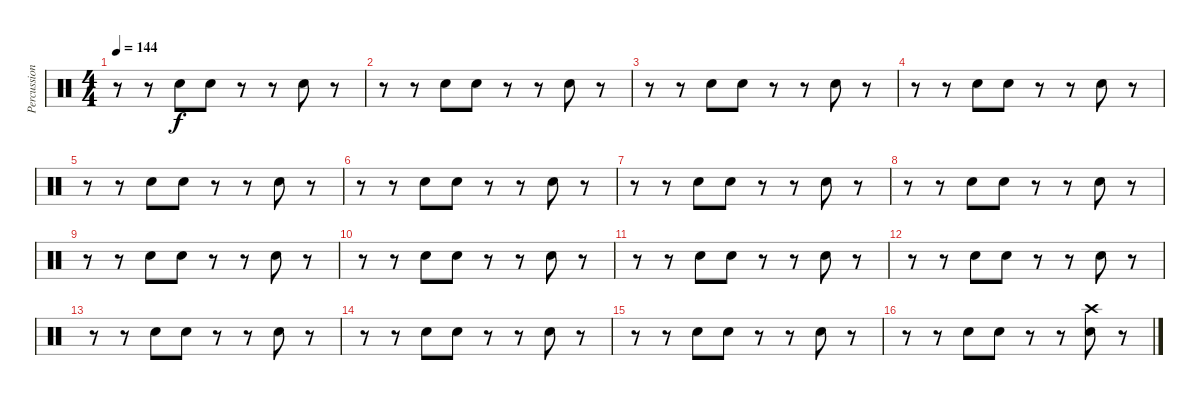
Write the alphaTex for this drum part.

\track ("Percussion" "Percussion") {instrument percussion}
\staff {score}
\articulation defaults
\ts (4 4)
\tempo 144
\clef neutral
\ks c
r.8{dy f} r.8 "Hand Clap (hit)".8 "Hand Clap (hit)".8 r.8 r.8 "Hand Clap (hit)".8 r.8 |
r.8 r.8 "Hand Clap (hit)".8 "Hand Clap (hit)".8 r.8 r.8 "Hand Clap (hit)".8 r.8 |
r.8 r.8 "Hand Clap (hit)".8 "Hand Clap (hit)".8 r.8 r.8 "Hand Clap (hit)".8 r.8 |
r.8 r.8 "Hand Clap (hit)".8 "Hand Clap (hit)".8 r.8 r.8 "Hand Clap (hit)".8 r.8 |
r.8 r.8 "Hand Clap (hit)".8 "Hand Clap (hit)".8 r.8 r.8 "Hand Clap (hit)".8 r.8 |
r.8 r.8 "Hand Clap (hit)".8 "Hand Clap (hit)".8 r.8 r.8 "Hand Clap (hit)".8 r.8 |
r.8 r.8 "Hand Clap (hit)".8 "Hand Clap (hit)".8 r.8 r.8 "Hand Clap (hit)".8 r.8 |
r.8 r.8 "Hand Clap (hit)".8 "Hand Clap (hit)".8 r.8 r.8 "Hand Clap (hit)".8 r.8 |
r.8 r.8 "Hand Clap (hit)".8 "Hand Clap (hit)".8 r.8 r.8 "Hand Clap (hit)".8 r.8 |
r.8 r.8 "Hand Clap (hit)".8 "Hand Clap (hit)".8 r.8 r.8 "Hand Clap (hit)".8 r.8 |
r.8 r.8 "Hand Clap (hit)".8 "Hand Clap (hit)".8 r.8 r.8 "Hand Clap (hit)".8 r.8 |
r.8 r.8 "Hand Clap (hit)".8 "Hand Clap (hit)".8 r.8 r.8 "Hand Clap (hit)".8 r.8 |
r.8 r.8 "Hand Clap (hit)".8 "Hand Clap (hit)".8 r.8 r.8 "Hand Clap (hit)".8 r.8 |
r.8 r.8 "Hand Clap (hit)".8 "Hand Clap (hit)".8 r.8 r.8 "Hand Clap (hit)".8 r.8 |
r.8 r.8 "Hand Clap (hit)".8 "Hand Clap (hit)".8 r.8 r.8 "Hand Clap (hit)".8 r.8 |
r.8 r.8 "Hand Clap (hit)".8 "Hand Clap (hit)".8 r.8 r.8 ("Hand Clap (hit)" "Crash high (hit)").8 r.8
